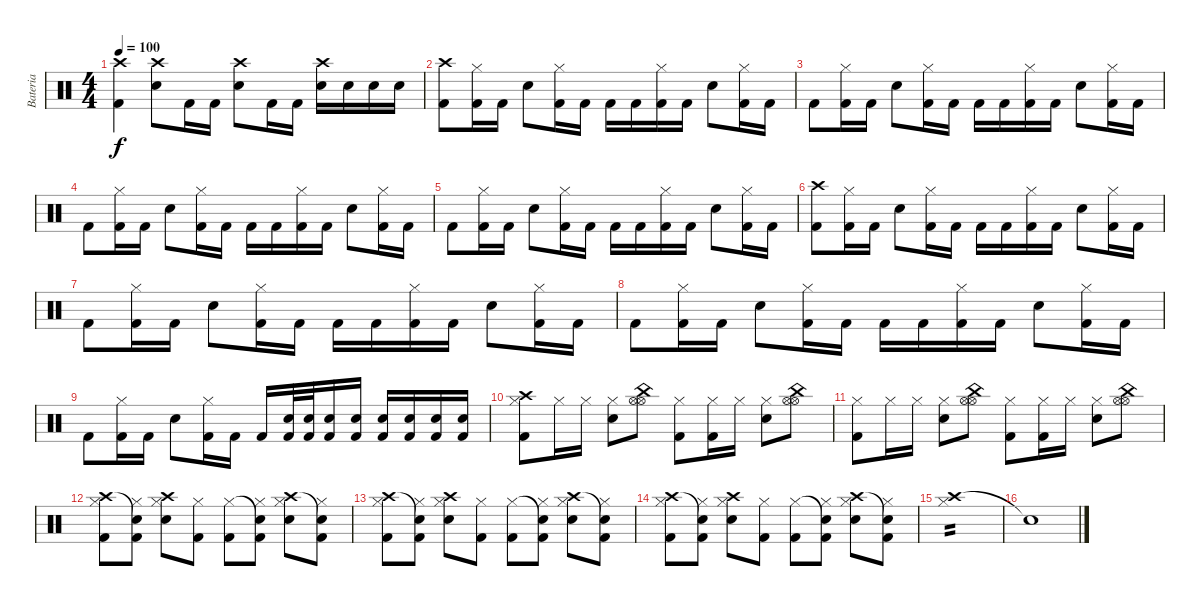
\track ("Bateria" "Bateria") {instrument percussion}
\staff {score}
\articulation defaults
\ts (4 4)
\tempo 100
\clef neutral
\ks c
("Crash high (hit)" "Kick (hit) 2").4{dy f} ("Crash high (hit)" "Electric Snare (hit)").8 "Kick (hit) 2".16 "Kick (hit) 2".16 ("Crash high (hit)" "Electric Snare (hit)").8 "Kick (hit) 2".16 "Kick (hit) 2".16 ("Crash high (hit)" "Electric Snare (hit)").16 "Electric Snare (hit)".16 "Electric Snare (hit)".16 "Electric Snare (hit)".16 |
("Crash high (hit)" "Kick (hit) 2").8 ("Hi-Hat (closed)" "Kick (hit) 2").16 "Kick (hit) 2".16 "Electric Snare (hit)".8 ("Hi-Hat (closed)" "Kick (hit) 2").16 "Kick (hit) 2".16 "Kick (hit) 2".16 "Kick (hit) 2".16 ("Hi-Hat (closed)" "Kick (hit) 2").16 "Kick (hit) 2".16 "Electric Snare (hit)".8 ("Hi-Hat (closed)" "Kick (hit) 2").16 "Kick (hit) 2".16 |
"Kick (hit) 2".8 ("Hi-Hat (closed)" "Kick (hit) 2").16 "Kick (hit) 2".16 "Electric Snare (hit)".8 ("Hi-Hat (closed)" "Kick (hit) 2").16 "Kick (hit) 2".16 "Kick (hit) 2".16 "Kick (hit) 2".16 ("Hi-Hat (closed)" "Kick (hit) 2").16 "Kick (hit) 2".16 "Electric Snare (hit)".8 ("Hi-Hat (closed)" "Kick (hit) 2").16 "Kick (hit) 2".16 |
"Kick (hit) 2".8 ("Hi-Hat (closed)" "Kick (hit) 2").16 "Kick (hit) 2".16 "Electric Snare (hit)".8 ("Hi-Hat (closed)" "Kick (hit) 2").16 "Kick (hit) 2".16 "Kick (hit) 2".16 "Kick (hit) 2".16 ("Hi-Hat (closed)" "Kick (hit) 2").16 "Kick (hit) 2".16 "Electric Snare (hit)".8 ("Hi-Hat (closed)" "Kick (hit) 2").16 "Kick (hit) 2".16 |
"Kick (hit) 2".8 ("Hi-Hat (closed)" "Kick (hit) 2").16 "Kick (hit) 2".16 "Electric Snare (hit)".8 ("Hi-Hat (closed)" "Kick (hit) 2").16 "Kick (hit) 2".16 "Kick (hit) 2".16 "Kick (hit) 2".16 ("Hi-Hat (closed)" "Kick (hit) 2").16 "Kick (hit) 2".16 "Electric Snare (hit)".8 ("Hi-Hat (closed)" "Kick (hit) 2").16 "Kick (hit) 2".16 |
("Crash high (hit)" "Kick (hit) 2").8 ("Hi-Hat (closed)" "Kick (hit) 2").16 "Kick (hit) 2".16 "Electric Snare (hit)".8 ("Hi-Hat (closed)" "Kick (hit) 2").16 "Kick (hit) 2".16 "Kick (hit) 2".16 "Kick (hit) 2".16 ("Hi-Hat (closed)" "Kick (hit) 2").16 "Kick (hit) 2".16 "Electric Snare (hit)".8 ("Hi-Hat (closed)" "Kick (hit) 2").16 "Kick (hit) 2".16 |
"Kick (hit) 2".8 ("Hi-Hat (closed)" "Kick (hit) 2").16 "Kick (hit) 2".16 "Electric Snare (hit)".8 ("Hi-Hat (closed)" "Kick (hit) 2").16 "Kick (hit) 2".16 "Kick (hit) 2".16 "Kick (hit) 2".16 ("Hi-Hat (closed)" "Kick (hit) 2").16 "Kick (hit) 2".16 "Electric Snare (hit)".8 ("Hi-Hat (closed)" "Kick (hit) 2").16 "Kick (hit) 2".16 |
"Kick (hit) 2".8 ("Hi-Hat (closed)" "Kick (hit) 2").16 "Kick (hit) 2".16 "Electric Snare (hit)".8 ("Hi-Hat (closed)" "Kick (hit) 2").16 "Kick (hit) 2".16 "Kick (hit) 2".16 "Kick (hit) 2".16 ("Hi-Hat (closed)" "Kick (hit) 2").16 "Kick (hit) 2".16 "Electric Snare (hit)".8 ("Hi-Hat (closed)" "Kick (hit) 2").16 "Kick (hit) 2".16 |
"Kick (hit) 2".8 ("Hi-Hat (closed)" "Kick (hit) 2").16 "Kick (hit) 2".16 "Electric Snare (hit)".8 ("Hi-Hat (closed)" "Kick (hit) 2").16 "Kick (hit) 2".16 "Kick (hit) 2".16 ("Electric Snare (hit)" "Kick (hit) 2").32 ("Electric Snare (hit)" "Kick (hit) 2").32 ("Electric Snare (hit)" "Kick (hit) 2").16 ("Electric Snare (hit)" "Kick (hit) 2").16 ("Electric Snare (hit)" "Kick (hit) 2").16 ("Electric Snare (hit)" "Kick (hit) 2").16 ("Electric Snare (hit)" "Kick (hit) 2").16 ("Electric Snare (hit)" "Kick (hit) 2").16 |
("Crash high (hit)" "Hi-Hat (closed)" "Kick (hit) 2").8 "Hi-Hat (closed)".16 "Hi-Hat (closed)".16 ("Electric Snare (hit)" "Hi-Hat (closed)").8 ("China (hit)" "Hi-Hat (open)" "Hi-Hat (open)").8 ("Hi-Hat (closed)" "Kick (hit) 2").8 ("Hi-Hat (closed)" "Kick (hit) 2").16 "Hi-Hat (closed)".16 ("Electric Snare (hit)" "Hi-Hat (closed)").8 ("China (hit)" "Hi-Hat (open)" "Hi-Hat (open)").8 |
("Hi-Hat (closed)" "Kick (hit) 2").8 "Hi-Hat (closed)".16 "Hi-Hat (closed)".16 ("Electric Snare (hit)" "Hi-Hat (closed)").8 ("China (hit)" "Hi-Hat (open)" "Hi-Hat (open)").8 ("Hi-Hat (closed)" "Kick (hit) 2").8 ("Hi-Hat (closed)" "Kick (hit) 2").16 "Hi-Hat (closed)".16 ("Electric Snare (hit)" "Hi-Hat (closed)").8 ("China (hit)" "Hi-Hat (open)" "Hi-Hat (open)").8 |
("Crash high (hit)" "Hi-Hat (closed)" "Kick (hit) 2").8 ("Snare (hit)"{t} "Hi-Hat (closed)" "Kick (hit) 2").8 ("Crash high (hit)" "Hi-Hat (closed)" "Electric Snare (hit)").8 ("Hi-Hat (closed)" "Kick (hit) 2").8 ("Hi-Hat (closed)" "Kick (hit) 2").8 ("Snare (hit)"{t} "Hi-Hat (closed)" "Kick (hit) 2").8 ("Crash high (hit)" "Hi-Hat (closed)" "Electric Snare (hit)").8 ("Snare (hit)"{t} "Hi-Hat (closed)" "Kick (hit) 2").8 |
("Crash high (hit)" "Hi-Hat (closed)" "Kick (hit) 2").8 ("Snare (hit)"{t} "Hi-Hat (closed)" "Kick (hit) 2").8 ("Crash high (hit)" "Hi-Hat (closed)" "Electric Snare (hit)").8 ("Hi-Hat (closed)" "Kick (hit) 2").8 ("Hi-Hat (closed)" "Kick (hit) 2").8 ("Snare (hit)"{t} "Hi-Hat (closed)" "Kick (hit) 2").8 ("Crash high (hit)" "Hi-Hat (closed)" "Electric Snare (hit)").8 ("Snare (hit)"{t} "Hi-Hat (closed)" "Kick (hit) 2").8 |
("Crash high (hit)" "Hi-Hat (closed)" "Kick (hit) 2").8 ("Snare (hit)"{t} "Hi-Hat (closed)" "Kick (hit) 2").8 ("Crash high (hit)" "Hi-Hat (closed)" "Electric Snare (hit)").8 ("Hi-Hat (closed)" "Kick (hit) 2").8 ("Hi-Hat (closed)" "Kick (hit) 2").8 ("Snare (hit)"{t} "Hi-Hat (closed)" "Kick (hit) 2").8 ("Crash high (hit)" "Hi-Hat (closed)" "Electric Snare (hit)").8 ("Snare (hit)"{t} "Hi-Hat (closed)" "Kick (hit) 2").8 |
("Crash high (hit)" "Hi-Hat (closed)").1{tp 2} |
"Snare (hit)"{t}.1
